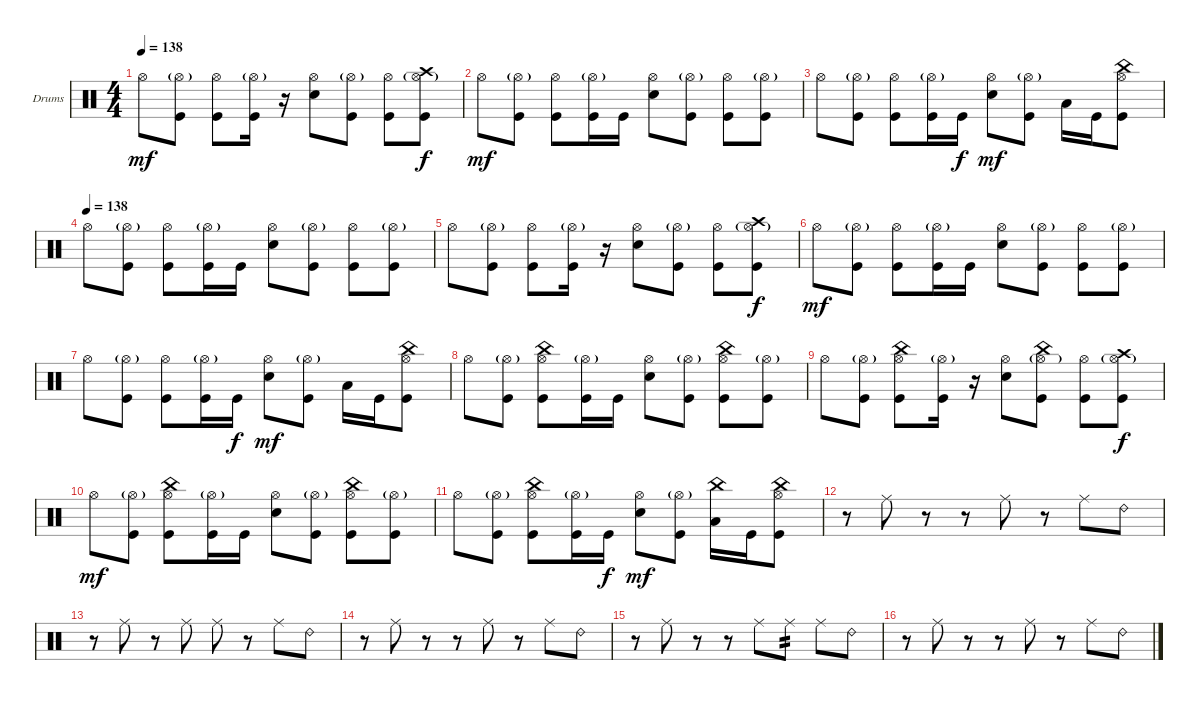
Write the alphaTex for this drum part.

\defaultSystemsLayout 4
\bracketExtendMode groupsimilarinstruments
\firstSystemTrackNameOrientation horizontal
\otherSystemsTrackNameOrientation horizontal
\track ("Valverde Drums" "Drums") {instrument percussion}
\staff {score}
\articulation defaults
\ts (4 4)
\tempo 138
\clef neutral
\ks c "Hi-Hat (open)".8{dy mf}
("Hi-Hat (open)"{g} "Kick (hit)").8 ("Hi-Hat (open)" "Kick (hit)").8 ("Hi-Hat (open)"{g} "Kick (hit)").16 r.16 ("Hi-Hat (open)" "Snare (hit) 2").8 ("Hi-Hat (open)"{g} "Kick (hit)").8 ("Hi-Hat (open)" "Kick (hit)").8 ("Hi-Hat (open)"{g} "Kick (hit)" "Crash high (hit)").8{dy f} |
"Hi-Hat (open)".8{dy mf} ("Hi-Hat (open)"{g} "Kick (hit)").8 ("Hi-Hat (open)" "Kick (hit)").8 ("Hi-Hat (open)"{g} "Kick (hit)").16 "Kick (hit)".16 ("Hi-Hat (open)" "Snare (hit) 2").8 ("Hi-Hat (open)"{g} "Kick (hit)").8 ("Hi-Hat (open)" "Kick (hit)").8 ("Hi-Hat (open)"{g} "Kick (hit)").8 |
"Hi-Hat (open)".8 ("Hi-Hat (open)"{g} "Kick (hit)").8 ("Hi-Hat (open)" "Kick (hit)").8 ("Hi-Hat (open)"{g} "Kick (hit)").16 "Kick (hit)".16{dy f} ("Hi-Hat (open)" "Snare (hit) 2").8{dy mf} ("Hi-Hat (open)"{g} "Kick (hit)").8 "Low Tom (hit)".16 "Kick (hit)".16 ("Hi-Hat (open)" "China (hit)" "Kick (hit)").8 |
\tempo (138)
"Hi-Hat (open)".8 ("Hi-Hat (open)"{g} "Kick (hit)").8 ("Hi-Hat (open)" "Kick (hit)").8 ("Hi-Hat (open)"{g} "Kick (hit)").16 "Kick (hit)".16 ("Hi-Hat (open)" "Snare (hit) 2").8 ("Hi-Hat (open)"{g} "Kick (hit)").8 ("Hi-Hat (open)" "Kick (hit)").8 ("Hi-Hat (open)"{g} "Kick (hit)").8 |
"Hi-Hat (open)".8 ("Hi-Hat (open)"{g} "Kick (hit)").8 ("Hi-Hat (open)" "Kick (hit)").8 ("Hi-Hat (open)"{g} "Kick (hit)").16 r.16 ("Hi-Hat (open)" "Snare (hit) 2").8 ("Hi-Hat (open)"{g} "Kick (hit)").8 ("Hi-Hat (open)" "Kick (hit)").8 ("Hi-Hat (open)"{g} "Kick (hit)" "Crash high (hit)").8{dy f} |
"Hi-Hat (open)".8{dy mf} ("Hi-Hat (open)"{g} "Kick (hit)").8 ("Hi-Hat (open)" "Kick (hit)").8 ("Hi-Hat (open)"{g} "Kick (hit)").16 "Kick (hit)".16 ("Hi-Hat (open)" "Snare (hit) 2").8 ("Hi-Hat (open)"{g} "Kick (hit)").8 ("Hi-Hat (open)" "Kick (hit)").8 ("Hi-Hat (open)"{g} "Kick (hit)").8 |
"Hi-Hat (open)".8 ("Hi-Hat (open)"{g} "Kick (hit)").8 ("Hi-Hat (open)" "Kick (hit)").8 ("Hi-Hat (open)"{g} "Kick (hit)").16 "Kick (hit)".16{dy f} ("Hi-Hat (open)" "Snare (hit) 2").8{dy mf} ("Hi-Hat (open)"{g} "Kick (hit)").8 "Low Tom (hit)".16 "Kick (hit)".16 ("Hi-Hat (open)" "China (hit)" "Kick (hit)").8 |
"Hi-Hat (open)".8 ("Hi-Hat (open)"{g} "Kick (hit)").8 ("Hi-Hat (open)" "Kick (hit)" "China (hit)").8 ("Hi-Hat (open)"{g} "Kick (hit)").16 "Kick (hit)".16 ("Hi-Hat (open)" "Snare (hit) 2").8 ("Hi-Hat (open)"{g} "Kick (hit)").8 ("Hi-Hat (open)" "Kick (hit)" "China (hit)").8 ("Hi-Hat (open)"{g} "Kick (hit)").8 |
"Hi-Hat (open)".8 ("Hi-Hat (open)"{g} "Kick (hit)").8 ("Hi-Hat (open)" "Kick (hit)" "China (hit)").8 ("Hi-Hat (open)"{g} "Kick (hit)").16 r.16 ("Hi-Hat (open)" "Snare (hit) 2").8 ("Hi-Hat (open)"{g} "Kick (hit)" "China (hit)").8 ("Hi-Hat (open)" "Kick (hit)").8 ("Hi-Hat (open)"{g} "Kick (hit)" "Crash high (hit)").8{dy f} |
"Hi-Hat (open)".8{dy mf} ("Hi-Hat (open)"{g} "Kick (hit)").8 ("Hi-Hat (open)" "Kick (hit)" "China (hit)").8 ("Hi-Hat (open)"{g} "Kick (hit)").16 "Kick (hit)".16 ("Hi-Hat (open)" "Snare (hit) 2").8 ("Hi-Hat (open)"{g} "Kick (hit)").8 ("Hi-Hat (open)" "Kick (hit)" "China (hit)").8 ("Hi-Hat (open)"{g} "Kick (hit)").8 |
"Hi-Hat (open)".8 ("Hi-Hat (open)"{g} "Kick (hit)").8 ("Hi-Hat (open)" "Kick (hit)" "China (hit)").8 ("Hi-Hat (open)"{g} "Kick (hit)").16 "Kick (hit)".16{dy f} ("Hi-Hat (open)" "Snare (hit) 2").8{dy mf} ("Hi-Hat (open)"{g} "Kick (hit)").8 ("Low Tom (hit)" "China (hit)").16 "Kick (hit)".16 ("Hi-Hat (open)" "China (hit)" "Kick (hit)").8 |
r.8 "Ride (middle)".8 r.8 r.8 "Ride (middle)".8 r.8 "Ride (middle)".8 "Ride (bell) 2".8 |
r.8 "Ride (middle)".8 r.8 "Ride (middle)".8 "Ride (middle)".8 r.8 "Ride (middle)".8 "Ride (bell) 2".8 |
r.8 "Ride (middle)".8 r.8 r.8 "Ride (middle)".8 r.8 "Ride (middle)".8 "Ride (bell) 2".8 |
r.8 "Ride (middle)".8 r.8 r.8 "Ride (middle)".8 "Ride (middle)".8{tp 2} "Ride (middle)".8 "Ride (bell) 2".8 |
r.8 "Ride (middle)".8 r.8 r.8 "Ride (middle)".8 r.8 "Ride (middle)".8 "Ride (bell) 2".8
